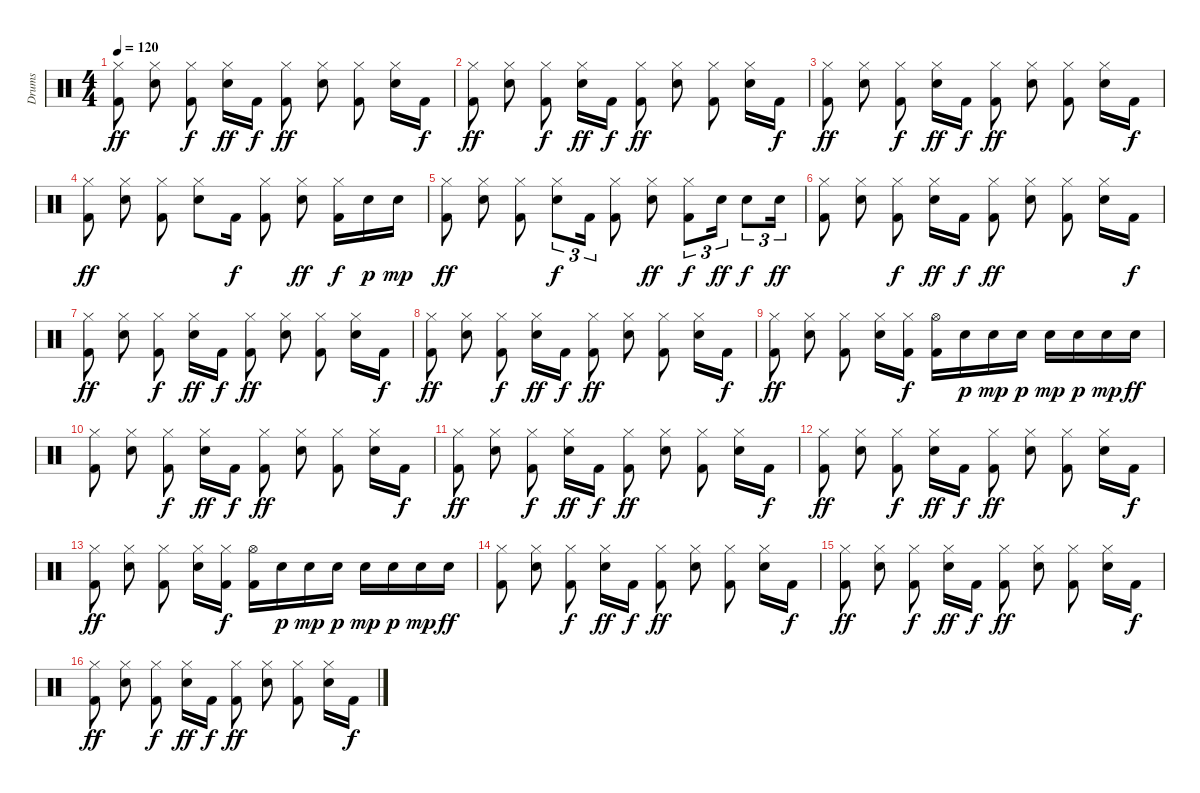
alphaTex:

\track ("Drums" "Drums") {instrument percussion}
\staff {score}
\articulation defaults
\ts (4 4)
\tempo 120
\clef neutral
\ks c
("Kick (hit) 2" "Hi-Hat (closed)").8{dy ff beam split} ("Snare (hit) 2" "Hi-Hat (closed)").8 ("Kick (hit) 2" "Hi-Hat (closed)").8{dy f beam split} ("Snare (hit) 2" "Hi-Hat (closed)").16{dy ff} "Kick (hit) 2".16{dy f} ("Kick (hit) 2" "Hi-Hat (closed)").8{dy ff beam split} ("Snare (hit) 2" "Hi-Hat (closed)").8 ("Kick (hit) 2" "Hi-Hat (closed)").8{beam split} ("Snare (hit) 2" "Hi-Hat (closed)").16 "Kick (hit) 2".16{dy f} |
("Kick (hit) 2" "Hi-Hat (closed)").8{dy ff beam split} ("Snare (hit) 2" "Hi-Hat (closed)").8 ("Kick (hit) 2" "Hi-Hat (closed)").8{dy f beam split} ("Snare (hit) 2" "Hi-Hat (closed)").16{dy ff} "Kick (hit) 2".16{dy f} ("Kick (hit) 2" "Hi-Hat (closed)").8{dy ff beam split} ("Snare (hit) 2" "Hi-Hat (closed)").8 ("Kick (hit) 2" "Hi-Hat (closed)").8{beam split} ("Snare (hit) 2" "Hi-Hat (closed)").16 "Kick (hit) 2".16{dy f} |
("Kick (hit) 2" "Hi-Hat (closed)").8{dy ff beam split} ("Snare (hit) 2" "Hi-Hat (closed)").8 ("Kick (hit) 2" "Hi-Hat (closed)").8{dy f beam split} ("Snare (hit) 2" "Hi-Hat (closed)").16{dy ff} "Kick (hit) 2".16{dy f} ("Kick (hit) 2" "Hi-Hat (closed)").8{dy ff beam split} ("Snare (hit) 2" "Hi-Hat (closed)").8 ("Kick (hit) 2" "Hi-Hat (closed)").8{beam split} ("Snare (hit) 2" "Hi-Hat (closed)").16 "Kick (hit) 2".16{dy f} |
("Kick (hit) 2" "Hi-Hat (closed)").8{dy ff beam split} ("Snare (hit) 2" "Hi-Hat (closed)").8 ("Kick (hit) 2" "Hi-Hat (closed)").8{beam split} ("Snare (hit) 2" "Hi-Hat (closed)").8{beam merge} "Kick (hit) 2".16{dy f beam split} ("Kick (hit) 2" "Hi-Hat (closed)").8{beam split} ("Snare (hit) 2" "Hi-Hat (closed)").8{dy ff} ("Kick (hit) 2" "Hi-Hat (closed)").16{dy f} "Snare (hit) 2".16{dy p} "Snare (hit) 2".16{dy mp} |
("Kick (hit) 2" "Hi-Hat (closed)").8{dy ff beam split} ("Snare (hit) 2" "Hi-Hat (closed)").8 ("Kick (hit) 2" "Hi-Hat (closed)").8{beam split} ("Snare (hit) 2" "Hi-Hat (closed)").8{tu (3 2) dy f} "Kick (hit) 2".16{tu (3 2)} ("Kick (hit) 2" "Hi-Hat (closed)").8{beam split} ("Snare (hit) 2" "Hi-Hat (closed)").8{dy ff} ("Kick (hit) 2" "Hi-Hat (closed)").8{tu (3 2) dy f beam merge} "Snare (hit) 2".16{tu (3 2) dy ff} "Snare (hit) 2".8{tu (3 2) dy f} "Snare (hit) 2".16{tu (3 2) dy ff} |
("Kick (hit) 2" "Hi-Hat (closed)").8{beam split} ("Snare (hit) 2" "Hi-Hat (closed)").8 ("Kick (hit) 2" "Hi-Hat (closed)").8{dy f beam split} ("Snare (hit) 2" "Hi-Hat (closed)").16{dy ff} "Kick (hit) 2".16{dy f} ("Kick (hit) 2" "Hi-Hat (closed)").8{dy ff beam split} ("Snare (hit) 2" "Hi-Hat (closed)").8 ("Kick (hit) 2" "Hi-Hat (closed)").8{beam split} ("Snare (hit) 2" "Hi-Hat (closed)").16 "Kick (hit) 2".16{dy f} |
("Kick (hit) 2" "Hi-Hat (closed)").8{dy ff beam split} ("Snare (hit) 2" "Hi-Hat (closed)").8 ("Kick (hit) 2" "Hi-Hat (closed)").8{dy f beam split} ("Snare (hit) 2" "Hi-Hat (closed)").16{dy ff} "Kick (hit) 2".16{dy f} ("Kick (hit) 2" "Hi-Hat (closed)").8{dy ff beam split} ("Snare (hit) 2" "Hi-Hat (closed)").8 ("Kick (hit) 2" "Hi-Hat (closed)").8{beam split} ("Snare (hit) 2" "Hi-Hat (closed)").16 "Kick (hit) 2".16{dy f} |
("Kick (hit) 2" "Hi-Hat (closed)").8{dy ff beam split} ("Snare (hit) 2" "Hi-Hat (closed)").8 ("Kick (hit) 2" "Hi-Hat (closed)").8{dy f beam split} ("Snare (hit) 2" "Hi-Hat (closed)").16{dy ff} "Kick (hit) 2".16{dy f} ("Kick (hit) 2" "Hi-Hat (closed)").8{dy ff beam split} ("Snare (hit) 2" "Hi-Hat (closed)").8 ("Kick (hit) 2" "Hi-Hat (closed)").8{beam split} ("Snare (hit) 2" "Hi-Hat (closed)").16 "Kick (hit) 2".16{dy f} |
("Kick (hit) 2" "Hi-Hat (closed)").8{dy ff beam split} ("Snare (hit) 2" "Hi-Hat (closed)").8 ("Kick (hit) 2" "Hi-Hat (closed)").8{beam split} ("Snare (hit) 2" "Hi-Hat (closed)").16{beam merge} ("Kick (hit) 2" "Hi-Hat (closed)").16{dy f} ("Kick (hit) 2" "Hi-Hat (open)").16{beam merge} "Snare (hit) 2".16{dy p beam merge} "Snare (hit) 2".16{dy mp beam merge} "Snare (hit) 2".16{dy p beam split} "Snare (hit) 2".16{dy mp beam merge} "Snare (hit) 2".16{dy p beam merge} "Snare (hit) 2".16{dy mp} "Snare (hit) 2".16{dy ff} |
("Kick (hit) 2" "Hi-Hat (closed)").8{beam split} ("Snare (hit) 2" "Hi-Hat (closed)").8 ("Kick (hit) 2" "Hi-Hat (closed)").8{dy f beam split} ("Snare (hit) 2" "Hi-Hat (closed)").16{dy ff} "Kick (hit) 2".16{dy f} ("Kick (hit) 2" "Hi-Hat (closed)").8{dy ff beam split} ("Snare (hit) 2" "Hi-Hat (closed)").8 ("Kick (hit) 2" "Hi-Hat (closed)").8{beam split} ("Snare (hit) 2" "Hi-Hat (closed)").16 "Kick (hit) 2".16{dy f} |
("Kick (hit) 2" "Hi-Hat (closed)").8{dy ff beam split} ("Snare (hit) 2" "Hi-Hat (closed)").8 ("Kick (hit) 2" "Hi-Hat (closed)").8{dy f beam split} ("Snare (hit) 2" "Hi-Hat (closed)").16{dy ff} "Kick (hit) 2".16{dy f} ("Kick (hit) 2" "Hi-Hat (closed)").8{dy ff beam split} ("Snare (hit) 2" "Hi-Hat (closed)").8 ("Kick (hit) 2" "Hi-Hat (closed)").8{beam split} ("Snare (hit) 2" "Hi-Hat (closed)").16 "Kick (hit) 2".16{dy f} |
("Kick (hit) 2" "Hi-Hat (closed)").8{dy ff beam split} ("Snare (hit) 2" "Hi-Hat (closed)").8 ("Kick (hit) 2" "Hi-Hat (closed)").8{dy f beam split} ("Snare (hit) 2" "Hi-Hat (closed)").16{dy ff} "Kick (hit) 2".16{dy f} ("Kick (hit) 2" "Hi-Hat (closed)").8{dy ff beam split} ("Snare (hit) 2" "Hi-Hat (closed)").8 ("Kick (hit) 2" "Hi-Hat (closed)").8{beam split} ("Snare (hit) 2" "Hi-Hat (closed)").16 "Kick (hit) 2".16{dy f} |
("Kick (hit) 2" "Hi-Hat (closed)").8{dy ff beam split} ("Snare (hit) 2" "Hi-Hat (closed)").8 ("Kick (hit) 2" "Hi-Hat (closed)").8{beam split} ("Snare (hit) 2" "Hi-Hat (closed)").16{beam merge} ("Kick (hit) 2" "Hi-Hat (closed)").16{dy f} ("Kick (hit) 2" "Hi-Hat (open)").16{beam merge} "Snare (hit) 2".16{dy p beam merge} "Snare (hit) 2".16{dy mp beam merge} "Snare (hit) 2".16{dy p beam split} "Snare (hit) 2".16{dy mp beam merge} "Snare (hit) 2".16{dy p beam merge} "Snare (hit) 2".16{dy mp} "Snare (hit) 2".16{dy ff} |
("Kick (hit) 2" "Hi-Hat (closed)").8{beam split} ("Snare (hit) 2" "Hi-Hat (closed)").8 ("Kick (hit) 2" "Hi-Hat (closed)").8{dy f beam split} ("Snare (hit) 2" "Hi-Hat (closed)").16{dy ff} "Kick (hit) 2".16{dy f} ("Kick (hit) 2" "Hi-Hat (closed)").8{dy ff beam split} ("Snare (hit) 2" "Hi-Hat (closed)").8 ("Kick (hit) 2" "Hi-Hat (closed)").8{beam split} ("Snare (hit) 2" "Hi-Hat (closed)").16 "Kick (hit) 2".16{dy f} |
("Kick (hit) 2" "Hi-Hat (closed)").8{dy ff beam split} ("Snare (hit) 2" "Hi-Hat (closed)").8 ("Kick (hit) 2" "Hi-Hat (closed)").8{dy f beam split} ("Snare (hit) 2" "Hi-Hat (closed)").16{dy ff} "Kick (hit) 2".16{dy f} ("Kick (hit) 2" "Hi-Hat (closed)").8{dy ff beam split} ("Snare (hit) 2" "Hi-Hat (closed)").8 ("Kick (hit) 2" "Hi-Hat (closed)").8{beam split} ("Snare (hit) 2" "Hi-Hat (closed)").16 "Kick (hit) 2".16{dy f} |
("Kick (hit) 2" "Hi-Hat (closed)").8{dy ff beam split} ("Snare (hit) 2" "Hi-Hat (closed)").8 ("Kick (hit) 2" "Hi-Hat (closed)").8{dy f beam split} ("Snare (hit) 2" "Hi-Hat (closed)").16{dy ff} "Kick (hit) 2".16{dy f} ("Kick (hit) 2" "Hi-Hat (closed)").8{dy ff beam split} ("Snare (hit) 2" "Hi-Hat (closed)").8 ("Kick (hit) 2" "Hi-Hat (closed)").8{beam split} ("Snare (hit) 2" "Hi-Hat (closed)").16 "Kick (hit) 2".16{dy f}
